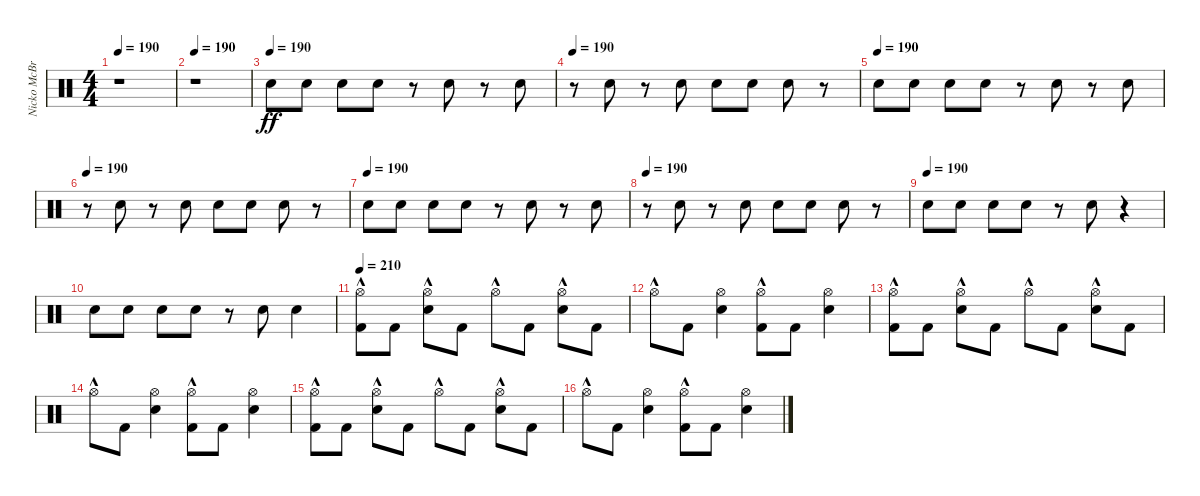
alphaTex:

\track ("Nicko McBrain" "Nicko McBr") {instrument percussion}
\staff {score}
\articulation defaults
\ts (4 4)
\tempo 190
\clef neutral
\ks c
r.1{dy ff} |
\tempo 190
r.1 |
\tempo (190)
"Snare (hit) 2".8 "Snare (hit) 2".8 "Snare (hit) 2".8 "Snare (hit) 2".8 r.8 "Snare (hit) 2".8 r.8 "Snare (hit) 2".8 |
\tempo 190
r.8 "Snare (hit) 2".8 r.8 "Snare (hit) 2".8 "Snare (hit) 2".8 "Snare (hit) 2".8 "Snare (hit) 2".8 r.8 |
\tempo (190)
"Snare (hit) 2".8 "Snare (hit) 2".8 "Snare (hit) 2".8 "Snare (hit) 2".8 r.8 "Snare (hit) 2".8 r.8 "Snare (hit) 2".8 |
\tempo 190
r.8 "Snare (hit) 2".8 r.8 "Snare (hit) 2".8 "Snare (hit) 2".8 "Snare (hit) 2".8 "Snare (hit) 2".8 r.8 |
\tempo (190)
"Snare (hit) 2".8 "Snare (hit) 2".8 "Snare (hit) 2".8 "Snare (hit) 2".8 r.8 "Snare (hit) 2".8 r.8 "Snare (hit) 2".8 |
\tempo 190
r.8 "Snare (hit) 2".8 r.8 "Snare (hit) 2".8 "Snare (hit) 2".8 "Snare (hit) 2".8 "Snare (hit) 2".8 r.8 |
\tempo (190)
"Snare (hit) 2".8 "Snare (hit) 2".8 "Snare (hit) 2".8 "Snare (hit) 2".8 r.8 "Snare (hit) 2".8 r.4 |
"Snare (hit) 2".8 "Snare (hit) 2".8 "Snare (hit) 2".8 "Snare (hit) 2".8 r.8 "Snare (hit) 2".8 "Snare (hit) 2".4 |
\tempo 210
("Kick (hit) 2" "Hi-Hat (open)"{hac}).8 "Kick (hit) 2".8 ("Snare (hit) 2" "Hi-Hat (open)"{hac}).8 "Kick (hit) 2".8 "Hi-Hat (open)"{hac}.8 "Kick (hit) 2".8 ("Snare (hit) 2" "Hi-Hat (open)"{hac}).8 "Kick (hit) 2".8 |
"Hi-Hat (open)"{hac}.8 "Kick (hit) 2".8 ("Snare (hit) 2" "Hi-Hat (open)").4 ("Kick (hit) 2" "Hi-Hat (open)"{hac}).8 "Kick (hit) 2".8 ("Snare (hit) 2" "Hi-Hat (open)").4 |
("Kick (hit) 2" "Hi-Hat (open)"{hac}).8 "Kick (hit) 2".8 ("Snare (hit) 2" "Hi-Hat (open)"{hac}).8 "Kick (hit) 2".8 "Hi-Hat (open)"{hac}.8 "Kick (hit) 2".8 ("Snare (hit) 2" "Hi-Hat (open)"{hac}).8 "Kick (hit) 2".8 |
"Hi-Hat (open)"{hac}.8 "Kick (hit) 2".8 ("Snare (hit) 2" "Hi-Hat (open)").4 ("Kick (hit) 2" "Hi-Hat (open)"{hac}).8 "Kick (hit) 2".8 ("Snare (hit) 2" "Hi-Hat (open)").4 |
("Kick (hit) 2" "Hi-Hat (open)"{hac}).8 "Kick (hit) 2".8 ("Snare (hit) 2" "Hi-Hat (open)"{hac}).8 "Kick (hit) 2".8 "Hi-Hat (open)"{hac}.8 "Kick (hit) 2".8 ("Snare (hit) 2" "Hi-Hat (open)"{hac}).8 "Kick (hit) 2".8 |
"Hi-Hat (open)"{hac}.8 "Kick (hit) 2".8 ("Snare (hit) 2" "Hi-Hat (open)").4 ("Kick (hit) 2" "Hi-Hat (open)"{hac}).8 "Kick (hit) 2".8 ("Snare (hit) 2" "Hi-Hat (open)").4
